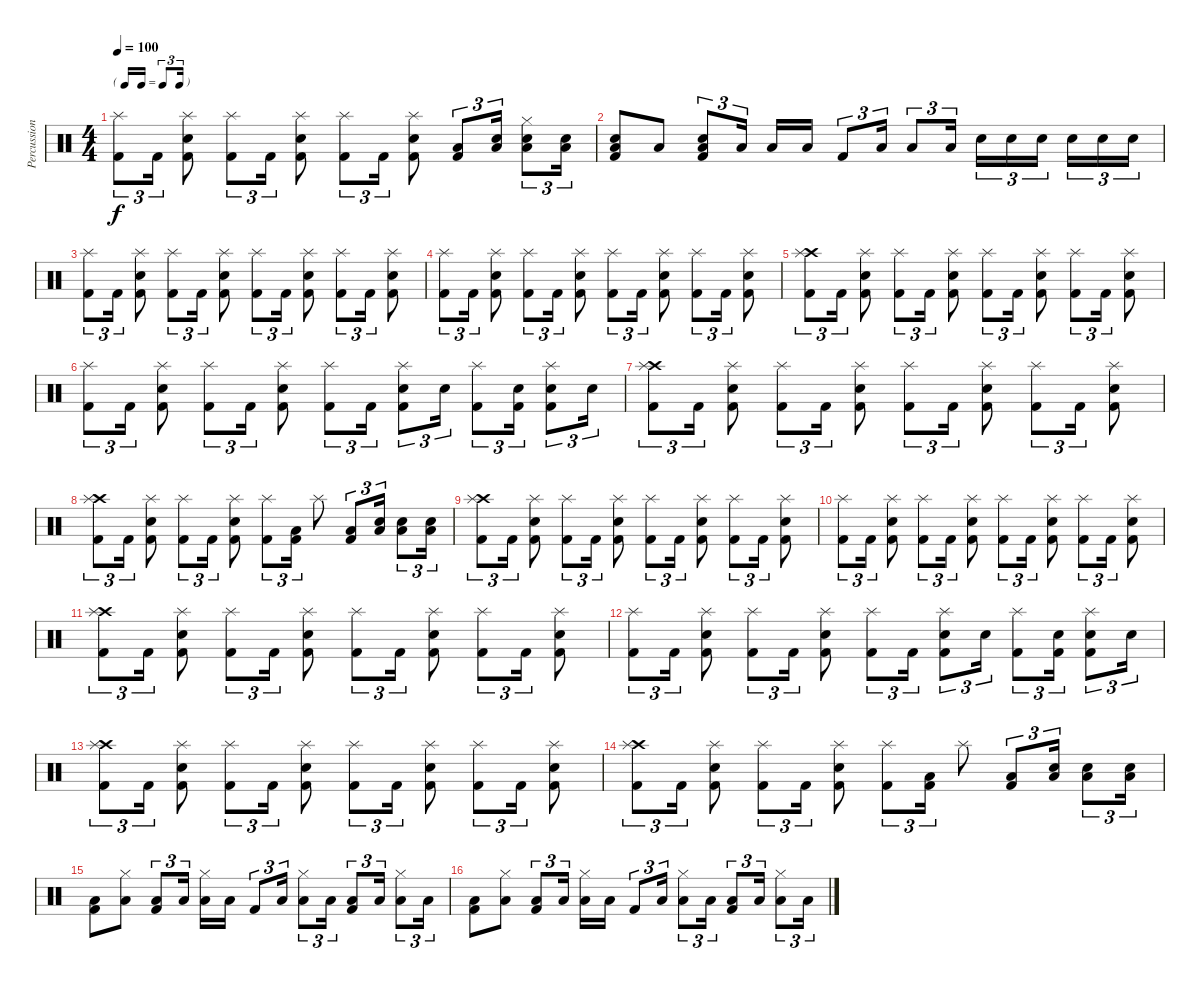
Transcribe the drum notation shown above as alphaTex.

\track ("Percussion" "Percussion") {instrument percussion}
\staff {score}
\articulation defaults
\ts (4 4)
\tf triplet16th
\tempo 100
\clef neutral
\ks c
("Splash (hit)" "Kick (hit) 2").8{tu (3 2) dy f} "Kick (hit) 2".16{tu (3 2)} ("Splash (hit)" "Electric Snare (hit)" "Kick (hit) 2").8 ("Splash (hit)" "Kick (hit) 2").8{tu (3 2)} "Kick (hit) 2".16{tu (3 2)} ("Splash (hit)" "Electric Snare (hit)" "Kick (hit) 2").8 ("Splash (hit)" "Kick (hit) 2").8{tu (3 2)} "Kick (hit) 2".16{tu (3 2)} ("Splash (hit)" "Electric Snare (hit)" "Kick (hit) 2").8 ("Low Floor Tom (hit)" "Kick (hit) 2").8{tu (3 2)} ("Electric Snare (hit)" "Low Floor Tom (hit)").16{tu (3 2)} ("Hi-Hat (closed)" "Electric Snare (hit)" "Low Tom (hit)").8{tu (3 2)} ("Electric Snare (hit)" "Low Floor Tom (hit)").16{tu (3 2)} |
("Electric Snare (hit)" "Low Floor Tom (hit)" "Kick (hit) 2").8 "Low Floor Tom (hit)".8 ("Electric Snare (hit)" "Low Floor Tom (hit)" "Kick (hit) 2").8{tu (3 2)} "Low Floor Tom (hit)".16{tu (3 2) beam splitsecondary} "Low Floor Tom (hit)".16 "Low Tom (hit)".16 "Kick (hit) 2".8{tu (3 2)} "Low Tom (hit)".16{tu (3 2)} "Low Floor Tom (hit)".8{tu (3 2)} "Low Floor Tom (hit)".16{tu (3 2)} "Electric Snare (hit)".16{tu (3 2)} "Electric Snare (hit)".16{tu (3 2)} "Electric Snare (hit)".16{tu (3 2) beam splitsecondary} "Electric Snare (hit)".16{tu (3 2)} "Electric Snare (hit)".16{tu (3 2)} "Electric Snare (hit)".16{tu (3 2)} |
("Splash (hit)" "Kick (hit) 2").8{tu (3 2)} "Kick (hit) 2".16{tu (3 2)} ("Splash (hit)" "Electric Snare (hit)" "Kick (hit) 2").8 ("Splash (hit)" "Kick (hit) 2").8{tu (3 2)} "Kick (hit) 2".16{tu (3 2)} ("Splash (hit)" "Electric Snare (hit)" "Kick (hit) 2").8 ("Splash (hit)" "Kick (hit) 2").8{tu (3 2)} "Kick (hit) 2".16{tu (3 2)} ("Splash (hit)" "Electric Snare (hit)" "Kick (hit) 2").8 ("Splash (hit)" "Kick (hit) 2").8{tu (3 2)} "Kick (hit) 2".16{tu (3 2)} ("Splash (hit)" "Electric Snare (hit)" "Kick (hit) 2").8 |
("Splash (hit)" "Kick (hit) 2").8{tu (3 2)} "Kick (hit) 2".16{tu (3 2)} ("Splash (hit)" "Electric Snare (hit)" "Kick (hit) 2").8 ("Splash (hit)" "Kick (hit) 2").8{tu (3 2)} "Kick (hit) 2".16{tu (3 2)} ("Splash (hit)" "Electric Snare (hit)" "Kick (hit) 2").8 ("Splash (hit)" "Kick (hit) 2").8{tu (3 2)} "Kick (hit) 2".16{tu (3 2)} ("Splash (hit)" "Electric Snare (hit)" "Kick (hit) 2").8 ("Splash (hit)" "Kick (hit) 2").8{tu (3 2)} "Kick (hit) 2".16{tu (3 2)} ("Splash (hit)" "Electric Snare (hit)" "Kick (hit) 2").8 |
("Crash high (hit)" "Splash (hit)" "Kick (hit) 2").8{tu (3 2)} "Kick (hit) 2".16{tu (3 2)} ("Splash (hit)" "Electric Snare (hit)" "Kick (hit) 2").8 ("Splash (hit)" "Kick (hit) 2").8{tu (3 2)} "Kick (hit) 2".16{tu (3 2)} ("Splash (hit)" "Electric Snare (hit)" "Kick (hit) 2").8 ("Splash (hit)" "Kick (hit) 2").8{tu (3 2)} "Kick (hit) 2".16{tu (3 2)} ("Splash (hit)" "Electric Snare (hit)" "Kick (hit) 2").8 ("Splash (hit)" "Kick (hit) 2").8{tu (3 2)} "Kick (hit) 2".16{tu (3 2)} ("Splash (hit)" "Electric Snare (hit)" "Kick (hit) 2").8 |
("Splash (hit)" "Kick (hit) 2").8{tu (3 2)} "Kick (hit) 2".16{tu (3 2)} ("Splash (hit)" "Electric Snare (hit)" "Kick (hit) 2").8 ("Splash (hit)" "Kick (hit) 2").8{tu (3 2)} "Kick (hit) 2".16{tu (3 2)} ("Splash (hit)" "Electric Snare (hit)" "Kick (hit) 2").8 ("Splash (hit)" "Kick (hit) 2").8{tu (3 2)} "Kick (hit) 2".16{tu (3 2)} ("Splash (hit)" "Electric Snare (hit)" "Kick (hit) 2").8{tu (3 2)} "Electric Snare (hit)".16{tu (3 2)} ("Splash (hit)" "Kick (hit) 2").8{tu (3 2)} ("Electric Snare (hit)" "Kick (hit) 2").16{tu (3 2)} ("Splash (hit)" "Electric Snare (hit)" "Kick (hit) 2").8{tu (3 2)} "Electric Snare (hit)".16{tu (3 2)} |
("Crash high (hit)" "Splash (hit)" "Kick (hit) 2").8{tu (3 2)} "Kick (hit) 2".16{tu (3 2)} ("Splash (hit)" "Electric Snare (hit)" "Kick (hit) 2").8 ("Splash (hit)" "Kick (hit) 2").8{tu (3 2)} "Kick (hit) 2".16{tu (3 2)} ("Splash (hit)" "Electric Snare (hit)" "Kick (hit) 2").8 ("Splash (hit)" "Kick (hit) 2").8{tu (3 2)} "Kick (hit) 2".16{tu (3 2)} ("Splash (hit)" "Electric Snare (hit)" "Kick (hit) 2").8 ("Splash (hit)" "Kick (hit) 2").8{tu (3 2)} "Kick (hit) 2".16{tu (3 2)} ("Splash (hit)" "Electric Snare (hit)" "Kick (hit) 2").8 |
("Crash high (hit)" "Splash (hit)" "Kick (hit) 2").8{tu (3 2)} "Kick (hit) 2".16{tu (3 2)} ("Splash (hit)" "Electric Snare (hit)" "Kick (hit) 2").8 ("Splash (hit)" "Kick (hit) 2").8{tu (3 2)} "Kick (hit) 2".16{tu (3 2)} ("Splash (hit)" "Electric Snare (hit)" "Kick (hit) 2").8 ("Splash (hit)" "Kick (hit) 2").8{tu (3 2)} ("Low Tom (hit)" "Kick (hit) 2").16{tu (3 2)} "Splash (hit)".8 ("Low Floor Tom (hit)" "Kick (hit) 2").8{tu (3 2)} ("Electric Snare (hit)" "Low Floor Tom (hit)").16{tu (3 2)} ("Electric Snare (hit)" "Low Tom (hit)").8{tu (3 2)} ("Electric Snare (hit)" "Low Floor Tom (hit)").16{tu (3 2)} |
("Crash high (hit)" "Splash (hit)" "Kick (hit) 2").8{tu (3 2)} "Kick (hit) 2".16{tu (3 2)} ("Splash (hit)" "Electric Snare (hit)" "Kick (hit) 2").8 ("Splash (hit)" "Kick (hit) 2").8{tu (3 2)} "Kick (hit) 2".16{tu (3 2)} ("Splash (hit)" "Electric Snare (hit)" "Kick (hit) 2").8 ("Splash (hit)" "Kick (hit) 2").8{tu (3 2)} "Kick (hit) 2".16{tu (3 2)} ("Splash (hit)" "Electric Snare (hit)" "Kick (hit) 2").8 ("Splash (hit)" "Kick (hit) 2").8{tu (3 2)} "Kick (hit) 2".16{tu (3 2)} ("Splash (hit)" "Electric Snare (hit)" "Kick (hit) 2").8 |
("Splash (hit)" "Kick (hit) 2").8{tu (3 2)} "Kick (hit) 2".16{tu (3 2)} ("Splash (hit)" "Electric Snare (hit)" "Kick (hit) 2").8 ("Splash (hit)" "Kick (hit) 2").8{tu (3 2)} "Kick (hit) 2".16{tu (3 2)} ("Splash (hit)" "Electric Snare (hit)" "Kick (hit) 2").8 ("Splash (hit)" "Kick (hit) 2").8{tu (3 2)} "Kick (hit) 2".16{tu (3 2)} ("Splash (hit)" "Electric Snare (hit)" "Kick (hit) 2").8 ("Splash (hit)" "Kick (hit) 2").8{tu (3 2)} "Kick (hit) 2".16{tu (3 2)} ("Splash (hit)" "Electric Snare (hit)" "Kick (hit) 2").8 |
("Crash high (hit)" "Splash (hit)" "Kick (hit) 2").8{tu (3 2)} "Kick (hit) 2".16{tu (3 2)} ("Splash (hit)" "Electric Snare (hit)" "Kick (hit) 2").8 ("Splash (hit)" "Kick (hit) 2").8{tu (3 2)} "Kick (hit) 2".16{tu (3 2)} ("Splash (hit)" "Electric Snare (hit)" "Kick (hit) 2").8 ("Splash (hit)" "Kick (hit) 2").8{tu (3 2)} "Kick (hit) 2".16{tu (3 2)} ("Splash (hit)" "Electric Snare (hit)" "Kick (hit) 2").8 ("Splash (hit)" "Kick (hit) 2").8{tu (3 2)} "Kick (hit) 2".16{tu (3 2)} ("Splash (hit)" "Electric Snare (hit)" "Kick (hit) 2").8 |
("Splash (hit)" "Kick (hit) 2").8{tu (3 2)} "Kick (hit) 2".16{tu (3 2)} ("Splash (hit)" "Electric Snare (hit)" "Kick (hit) 2").8 ("Splash (hit)" "Kick (hit) 2").8{tu (3 2)} "Kick (hit) 2".16{tu (3 2)} ("Splash (hit)" "Electric Snare (hit)" "Kick (hit) 2").8 ("Splash (hit)" "Kick (hit) 2").8{tu (3 2)} "Kick (hit) 2".16{tu (3 2)} ("Splash (hit)" "Electric Snare (hit)" "Kick (hit) 2").8{tu (3 2)} "Electric Snare (hit)".16{tu (3 2)} ("Splash (hit)" "Kick (hit) 2").8{tu (3 2)} ("Electric Snare (hit)" "Kick (hit) 2").16{tu (3 2)} ("Splash (hit)" "Electric Snare (hit)" "Kick (hit) 2").8{tu (3 2)} "Electric Snare (hit)".16{tu (3 2)} |
("Crash high (hit)" "Splash (hit)" "Kick (hit) 2").8{tu (3 2)} "Kick (hit) 2".16{tu (3 2)} ("Splash (hit)" "Electric Snare (hit)" "Kick (hit) 2").8 ("Splash (hit)" "Kick (hit) 2").8{tu (3 2)} "Kick (hit) 2".16{tu (3 2)} ("Splash (hit)" "Electric Snare (hit)" "Kick (hit) 2").8 ("Splash (hit)" "Kick (hit) 2").8{tu (3 2)} "Kick (hit) 2".16{tu (3 2)} ("Splash (hit)" "Electric Snare (hit)" "Kick (hit) 2").8 ("Splash (hit)" "Kick (hit) 2").8{tu (3 2)} "Kick (hit) 2".16{tu (3 2)} ("Splash (hit)" "Electric Snare (hit)" "Kick (hit) 2").8 |
("Crash high (hit)" "Splash (hit)" "Kick (hit) 2").8{tu (3 2)} "Kick (hit) 2".16{tu (3 2)} ("Splash (hit)" "Electric Snare (hit)" "Kick (hit) 2").8 ("Splash (hit)" "Kick (hit) 2").8{tu (3 2)} "Kick (hit) 2".16{tu (3 2)} ("Splash (hit)" "Electric Snare (hit)" "Kick (hit) 2").8 ("Splash (hit)" "Kick (hit) 2").8{tu (3 2)} ("Low Tom (hit)" "Kick (hit) 2").16{tu (3 2)} "Splash (hit)".8 ("Low Floor Tom (hit)" "Kick (hit) 2").8{tu (3 2)} ("Electric Snare (hit)" "Low Floor Tom (hit)").16{tu (3 2)} ("Electric Snare (hit)" "Low Tom (hit)").8{tu (3 2)} ("Electric Snare (hit)" "Low Floor Tom (hit)").16{tu (3 2)} |
("Low Floor Tom (hit)" "Kick (hit) 2").8 ("Hi-Hat (closed)" "Low Floor Tom (hit)").8 ("Low Floor Tom (hit)" "Kick (hit) 2").8{tu (3 2)} "Low Floor Tom (hit)".16{tu (3 2) beam splitsecondary} ("Hi-Hat (closed)" "Low Floor Tom (hit)").16 "Low Tom (hit)".16 "Kick (hit) 2".8{tu (3 2)} "Low Tom (hit)".16{tu (3 2)} ("Hi-Hat (closed)" "Low Floor Tom (hit)").8{tu (3 2)} "Low Floor Tom (hit)".16{tu (3 2)} ("Low Floor Tom (hit)" "Kick (hit) 2").8{tu (3 2)} "Low Floor Tom (hit)".16{tu (3 2)} ("Hi-Hat (closed)" "Low Tom (hit)").8{tu (3 2)} "Low Floor Tom (hit)".16{tu (3 2)} |
("Low Floor Tom (hit)" "Kick (hit) 2").8 ("Hi-Hat (closed)" "Low Floor Tom (hit)").8 ("Low Floor Tom (hit)" "Kick (hit) 2").8{tu (3 2)} "Low Floor Tom (hit)".16{tu (3 2) beam splitsecondary} ("Hi-Hat (closed)" "Low Floor Tom (hit)").16 "Low Tom (hit)".16 "Kick (hit) 2".8{tu (3 2)} "Low Tom (hit)".16{tu (3 2)} ("Hi-Hat (closed)" "Low Floor Tom (hit)").8{tu (3 2)} "Low Floor Tom (hit)".16{tu (3 2)} ("Low Floor Tom (hit)" "Kick (hit) 2").8{tu (3 2)} "Low Floor Tom (hit)".16{tu (3 2)} ("Hi-Hat (closed)" "Low Tom (hit)").8{tu (3 2)} "Low Floor Tom (hit)".16{tu (3 2)}
